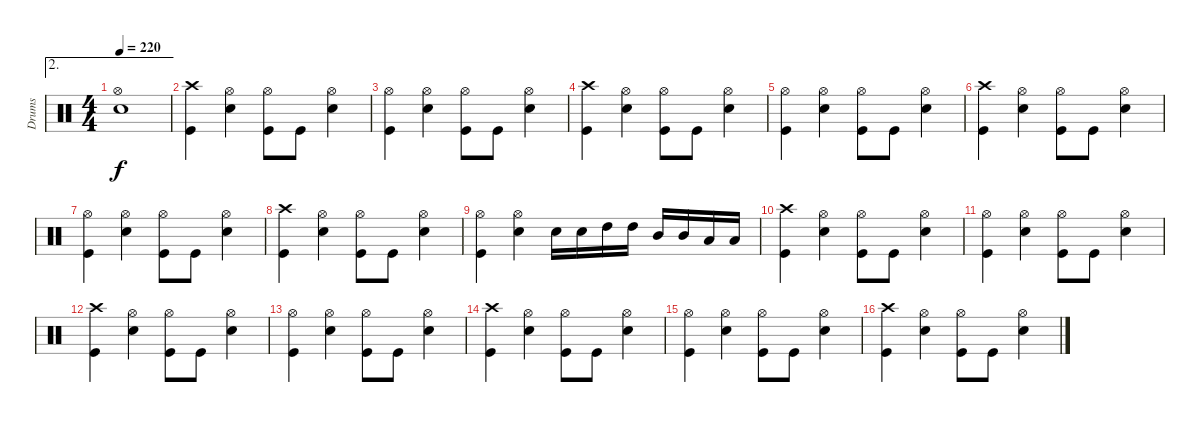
\track ("Drums" "Drums") {instrument percussion}
\staff {score}
\articulation defaults
\ae 2
\ts (4 4)
\tempo 220
\clef neutral
\ks c
("Hi-Hat (open)" "Snare (hit) 2").1{dy f} |
("Crash high (hit)" "Kick (hit)").4 ("Hi-Hat (open)" "Snare (hit) 2").4 ("Hi-Hat (open)" "Kick (hit)").8 "Kick (hit)".8 ("Hi-Hat (open)" "Snare (hit) 2").4 |
("Hi-Hat (open)" "Kick (hit)").4 ("Hi-Hat (open)" "Snare (hit) 2").4 ("Hi-Hat (open)" "Kick (hit)").8 "Kick (hit)".8 ("Hi-Hat (open)" "Snare (hit) 2").4 |
("Crash high (hit)" "Kick (hit)").4 ("Hi-Hat (open)" "Snare (hit) 2").4 ("Hi-Hat (open)" "Kick (hit)").8 "Kick (hit)".8 ("Hi-Hat (open)" "Snare (hit) 2").4 |
("Hi-Hat (open)" "Kick (hit)").4 ("Hi-Hat (open)" "Snare (hit) 2").4 ("Hi-Hat (open)" "Kick (hit)").8 "Kick (hit)".8 ("Hi-Hat (open)" "Snare (hit) 2").4 |
("Crash high (hit)" "Kick (hit)").4 ("Hi-Hat (open)" "Snare (hit) 2").4 ("Hi-Hat (open)" "Kick (hit)").8 "Kick (hit)".8 ("Hi-Hat (open)" "Snare (hit) 2").4 |
("Hi-Hat (open)" "Kick (hit)").4 ("Hi-Hat (open)" "Snare (hit) 2").4 ("Hi-Hat (open)" "Kick (hit)").8 "Kick (hit)".8 ("Hi-Hat (open)" "Snare (hit) 2").4 |
("Crash high (hit)" "Kick (hit)").4 ("Hi-Hat (open)" "Snare (hit) 2").4 ("Hi-Hat (open)" "Kick (hit)").8 "Kick (hit)".8 ("Hi-Hat (open)" "Snare (hit) 2").4 |
("Hi-Hat (open)" "Kick (hit)").4 ("Hi-Hat (open)" "Snare (hit) 2").4 "Snare (hit) 2".16 "Snare (hit) 2".16 "High Tom (hit)".16 "High Tom (hit)".16 "Mid Tom (hit)".16 "Mid Tom (hit)".16 "Low Tom (hit)".16 "Low Tom (hit)".16 |
("Crash high (hit)" "Kick (hit)").4 ("Hi-Hat (open)" "Snare (hit) 2").4 ("Hi-Hat (open)" "Kick (hit)").8 "Kick (hit)".8 ("Hi-Hat (open)" "Snare (hit) 2").4 |
("Hi-Hat (open)" "Kick (hit)").4 ("Hi-Hat (open)" "Snare (hit) 2").4 ("Hi-Hat (open)" "Kick (hit)").8 "Kick (hit)".8 ("Hi-Hat (open)" "Snare (hit) 2").4 |
("Crash high (hit)" "Kick (hit)").4 ("Hi-Hat (open)" "Snare (hit) 2").4 ("Hi-Hat (open)" "Kick (hit)").8 "Kick (hit)".8 ("Hi-Hat (open)" "Snare (hit) 2").4 |
("Hi-Hat (open)" "Kick (hit)").4 ("Hi-Hat (open)" "Snare (hit) 2").4 ("Hi-Hat (open)" "Kick (hit)").8 "Kick (hit)".8 ("Hi-Hat (open)" "Snare (hit) 2").4 |
("Crash high (hit)" "Kick (hit)").4 ("Hi-Hat (open)" "Snare (hit) 2").4 ("Hi-Hat (open)" "Kick (hit)").8 "Kick (hit)".8 ("Hi-Hat (open)" "Snare (hit) 2").4 |
("Hi-Hat (open)" "Kick (hit)").4 ("Hi-Hat (open)" "Snare (hit) 2").4 ("Hi-Hat (open)" "Kick (hit)").8 "Kick (hit)".8 ("Hi-Hat (open)" "Snare (hit) 2").4 |
("Crash high (hit)" "Kick (hit)").4 ("Hi-Hat (open)" "Snare (hit) 2").4 ("Hi-Hat (open)" "Kick (hit)").8 "Kick (hit)".8 ("Hi-Hat (open)" "Snare (hit) 2").4
